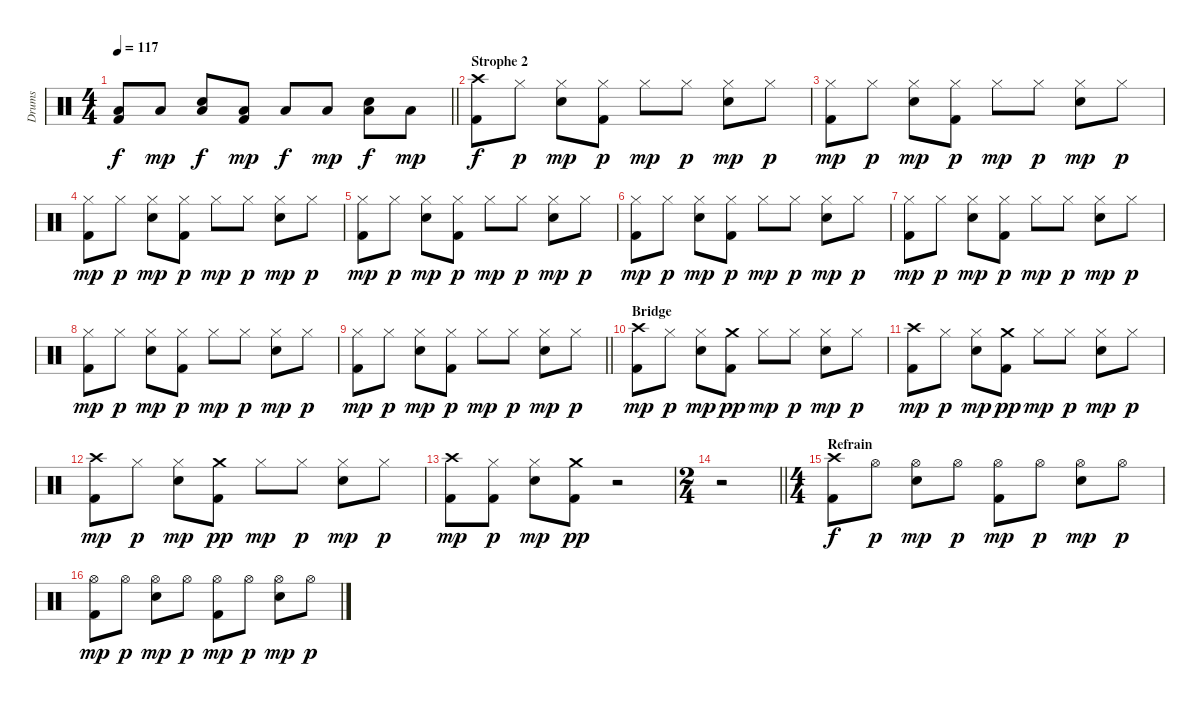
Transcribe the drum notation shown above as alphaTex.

\track ("Drums" "Drums") {instrument percussion}
\staff {score}
\articulation defaults
\ts (4 4)
\tempo 117
\clef neutral
\barLineRight lightlight
\ks c
("Low Floor Tom (hit)" "Kick (hit) 2").8{dy f} "Low Floor Tom (hit)".8{dy mp} ("Low Floor Tom (hit)" "Snare (hit) 2").8{dy f} ("Low Floor Tom (hit)" "Kick (hit) 2").8{dy mp} "Low Floor Tom (hit)".8{dy f} "Low Floor Tom (hit)".8{dy mp} ("Low Floor Tom (hit)" "Snare (hit) 2").8{dy f} "Low Floor Tom (hit)".8{dy mp} |
\section ("" "Strophe 2")
("Crash high (hit)" "Kick (hit) 2").8{dy f} "Hi-Hat (closed)".8{dy p} ("Hi-Hat (closed)" "Snare (hit) 2").8{dy mp} ("Hi-Hat (closed)" "Kick (hit) 2").8{dy p} "Hi-Hat (closed)".8{dy mp} "Hi-Hat (closed)".8{dy p} ("Hi-Hat (closed)" "Snare (hit) 2").8{dy mp} "Hi-Hat (closed)".8{dy p} |
("Hi-Hat (closed)" "Kick (hit) 2").8{dy mp} "Hi-Hat (closed)".8{dy p} ("Hi-Hat (closed)" "Snare (hit) 2").8{dy mp} ("Hi-Hat (closed)" "Kick (hit) 2").8{dy p} "Hi-Hat (closed)".8{dy mp} "Hi-Hat (closed)".8{dy p} ("Hi-Hat (closed)" "Snare (hit) 2").8{dy mp} "Hi-Hat (closed)".8{dy p} |
("Hi-Hat (closed)" "Kick (hit) 2").8{dy mp} "Hi-Hat (closed)".8{dy p} ("Hi-Hat (closed)" "Snare (hit) 2").8{dy mp} ("Hi-Hat (closed)" "Kick (hit) 2").8{dy p} "Hi-Hat (closed)".8{dy mp} "Hi-Hat (closed)".8{dy p} ("Hi-Hat (closed)" "Snare (hit) 2").8{dy mp} "Hi-Hat (closed)".8{dy p} |
("Hi-Hat (closed)" "Kick (hit) 2").8{dy mp} "Hi-Hat (closed)".8{dy p} ("Hi-Hat (closed)" "Snare (hit) 2").8{dy mp} ("Hi-Hat (closed)" "Kick (hit) 2").8{dy p} "Hi-Hat (closed)".8{dy mp} "Hi-Hat (closed)".8{dy p} ("Hi-Hat (closed)" "Snare (hit) 2").8{dy mp} "Hi-Hat (closed)".8{dy p} |
("Hi-Hat (closed)" "Kick (hit) 2").8{dy mp} "Hi-Hat (closed)".8{dy p} ("Hi-Hat (closed)" "Snare (hit) 2").8{dy mp} ("Hi-Hat (closed)" "Kick (hit) 2").8{dy p} "Hi-Hat (closed)".8{dy mp} "Hi-Hat (closed)".8{dy p} ("Hi-Hat (closed)" "Snare (hit) 2").8{dy mp} "Hi-Hat (closed)".8{dy p} |
("Hi-Hat (closed)" "Kick (hit) 2").8{dy mp} "Hi-Hat (closed)".8{dy p} ("Hi-Hat (closed)" "Snare (hit) 2").8{dy mp} ("Hi-Hat (closed)" "Kick (hit) 2").8{dy p} "Hi-Hat (closed)".8{dy mp} "Hi-Hat (closed)".8{dy p} ("Hi-Hat (closed)" "Snare (hit) 2").8{dy mp} "Hi-Hat (closed)".8{dy p} |
("Hi-Hat (closed)" "Kick (hit) 2").8{dy mp} "Hi-Hat (closed)".8{dy p} ("Hi-Hat (closed)" "Snare (hit) 2").8{dy mp} ("Hi-Hat (closed)" "Kick (hit) 2").8{dy p} "Hi-Hat (closed)".8{dy mp} "Hi-Hat (closed)".8{dy p} ("Hi-Hat (closed)" "Snare (hit) 2").8{dy mp} "Hi-Hat (closed)".8{dy p} |
\barLineRight lightlight
("Hi-Hat (closed)" "Kick (hit) 2").8{dy mp} "Hi-Hat (closed)".8{dy p} ("Hi-Hat (closed)" "Snare (hit) 2").8{dy mp} ("Hi-Hat (closed)" "Kick (hit) 2").8{dy p} "Hi-Hat (closed)".8{dy mp} "Hi-Hat (closed)".8{dy p} ("Hi-Hat (closed)" "Snare (hit) 2").8{dy mp} "Hi-Hat (closed)".8{dy p} |
\section ("" "Bridge")
("Crash high (hit)" "Kick (hit) 2").8{dy mp} "Hi-Hat (closed)".8{dy p} ("Hi-Hat (closed)" "Snare (hit) 2").8{dy mp} ("Crash medium (hit)" "Kick (hit) 2").8{dy pp} "Hi-Hat (closed)".8{dy mp} "Hi-Hat (closed)".8{dy p} ("Hi-Hat (closed)" "Snare (hit) 2").8{dy mp} "Hi-Hat (closed)".8{dy p} |
("Crash high (hit)" "Kick (hit) 2").8{dy mp} "Hi-Hat (closed)".8{dy p} ("Hi-Hat (closed)" "Snare (hit) 2").8{dy mp} ("Crash medium (hit)" "Kick (hit) 2").8{dy pp} "Hi-Hat (closed)".8{dy mp} "Hi-Hat (closed)".8{dy p} ("Hi-Hat (closed)" "Snare (hit) 2").8{dy mp} "Hi-Hat (closed)".8{dy p} |
("Crash high (hit)" "Kick (hit) 2").8{dy mp} "Hi-Hat (closed)".8{dy p} ("Hi-Hat (closed)" "Snare (hit) 2").8{dy mp} ("Crash medium (hit)" "Kick (hit) 2").8{dy pp} "Hi-Hat (closed)".8{dy mp} "Hi-Hat (closed)".8{dy p} ("Hi-Hat (closed)" "Snare (hit) 2").8{dy mp} "Hi-Hat (closed)".8{dy p} |
("Crash high (hit)" "Kick (hit) 2").8{dy mp} ("Hi-Hat (closed)" "Kick (hit) 2").8{dy p} ("Hi-Hat (closed)" "Snare (hit) 2").8{dy mp} ("Crash medium (hit)" "Kick (hit) 2").8{dy pp} r.2 |
\ts (2 4)
\barLineRight lightlight
r.2 |
\ts (4 4)
\section ("" "Refrain")
("Crash high (hit)" "Kick (hit) 2").8{dy f} "Hi-Hat (open)".8{dy p} ("Hi-Hat (open)" "Snare (hit) 2").8{dy mp} "Hi-Hat (open)".8{dy p} ("Hi-Hat (open)" "Kick (hit) 2").8{dy mp} "Hi-Hat (open)".8{dy p} ("Hi-Hat (open)" "Snare (hit) 2").8{dy mp} "Hi-Hat (open)".8{dy p} |
("Hi-Hat (open)" "Kick (hit) 2").8{dy mp} "Hi-Hat (open)".8{dy p} ("Hi-Hat (open)" "Snare (hit) 2").8{dy mp} "Hi-Hat (open)".8{dy p} ("Hi-Hat (open)" "Kick (hit) 2").8{dy mp} "Hi-Hat (open)".8{dy p} ("Hi-Hat (open)" "Snare (hit) 2").8{dy mp} "Hi-Hat (open)".8{dy p}
